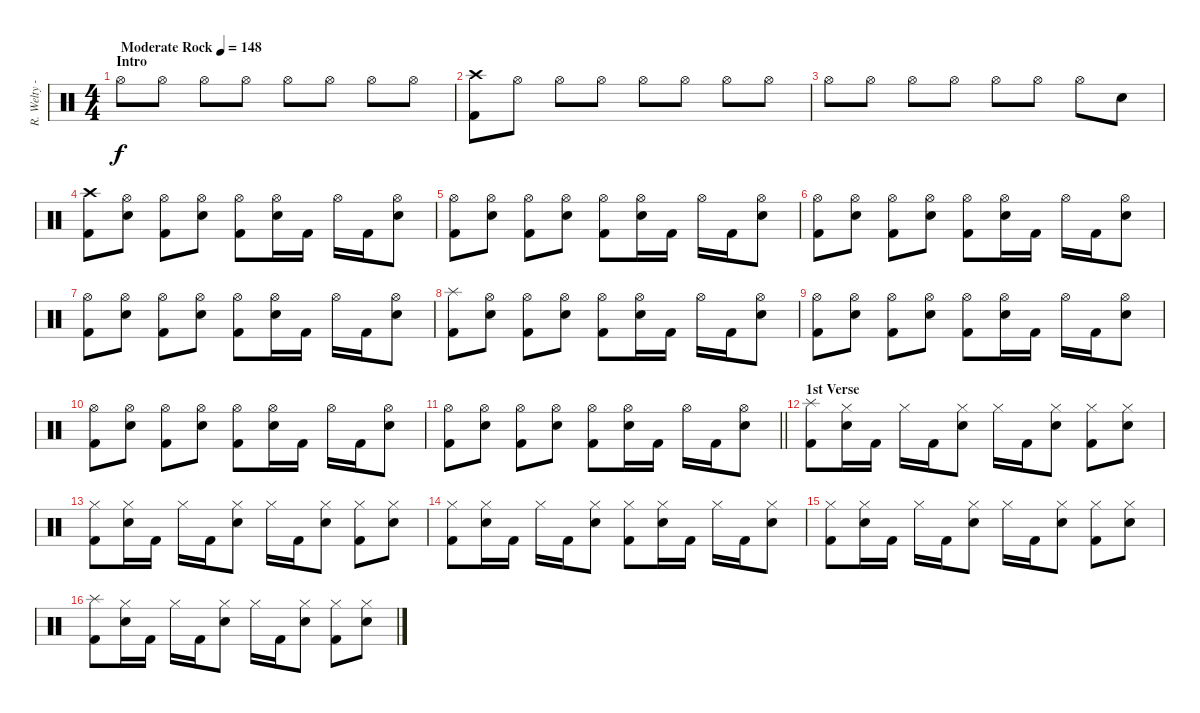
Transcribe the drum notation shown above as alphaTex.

\track ("R. Welty - Drums" "R. Welty -") {instrument percussion}
\staff {score}
\articulation defaults
\ts (4 4)
\section ("" "Intro")
\tempo (148 "Moderate Rock")
\clef neutral
\ks c "Hi-Hat (open)".8{dy f} "Hi-Hat (open)".8 "Hi-Hat (open)".8 "Hi-Hat (open)".8 "Hi-Hat (open)".8 "Hi-Hat (open)".8 "Hi-Hat (open)".8 "Hi-Hat (open)".8
|
("Crash high (hit)" "Kick (hit) 2").8 "Hi-Hat (open)".8 "Hi-Hat (open)".8 "Hi-Hat (open)".8 "Hi-Hat (open)".8 "Hi-Hat (open)".8 "Hi-Hat (open)".8 "Hi-Hat (open)".8 |
"Hi-Hat (open)".8 "Hi-Hat (open)".8 "Hi-Hat (open)".8 "Hi-Hat (open)".8 "Hi-Hat (open)".8 "Hi-Hat (open)".8 "Hi-Hat (open)".8 "Snare (hit) 2".8 |
("Crash high (hit)" "Kick (hit) 2").8 ("Hi-Hat (open)" "Snare (hit) 2").8 ("Hi-Hat (open)" "Kick (hit) 2").8 ("Hi-Hat (open)" "Snare (hit) 2").8 ("Hi-Hat (open)" "Kick (hit) 2").8 ("Hi-Hat (open)" "Snare (hit) 2").16 "Kick (hit) 2".16 "Hi-Hat (open)".16 "Kick (hit) 2".16 ("Hi-Hat (open)" "Snare (hit) 2").8 |
("Hi-Hat (open)" "Kick (hit) 2").8 ("Hi-Hat (open)" "Snare (hit) 2").8 ("Hi-Hat (open)" "Kick (hit) 2").8 ("Hi-Hat (open)" "Snare (hit) 2").8 ("Hi-Hat (open)" "Kick (hit) 2").8 ("Hi-Hat (open)" "Snare (hit) 2").16 "Kick (hit) 2".16 "Hi-Hat (open)".16 "Kick (hit) 2".16 ("Hi-Hat (open)" "Snare (hit) 2").8 |
("Hi-Hat (open)" "Kick (hit) 2").8 ("Hi-Hat (open)" "Snare (hit) 2").8 ("Hi-Hat (open)" "Kick (hit) 2").8 ("Hi-Hat (open)" "Snare (hit) 2").8 ("Hi-Hat (open)" "Kick (hit) 2").8 ("Hi-Hat (open)" "Snare (hit) 2").16 "Kick (hit) 2".16 "Hi-Hat (open)".16 "Kick (hit) 2".16 ("Hi-Hat (open)" "Snare (hit) 2").8 |
("Hi-Hat (open)" "Kick (hit) 2").8 ("Hi-Hat (open)" "Snare (hit) 2").8 ("Hi-Hat (open)" "Kick (hit) 2").8 ("Hi-Hat (open)" "Snare (hit) 2").8 ("Hi-Hat (open)" "Kick (hit) 2").8 ("Hi-Hat (open)" "Snare (hit) 2").16 "Kick (hit) 2".16 "Hi-Hat (open)".16 "Kick (hit) 2".16 ("Hi-Hat (open)" "Snare (hit) 2").8 |
("Splash (hit)" "Kick (hit) 2").8 ("Hi-Hat (open)" "Snare (hit) 2").8 ("Hi-Hat (open)" "Kick (hit) 2").8 ("Hi-Hat (open)" "Snare (hit) 2").8 ("Hi-Hat (open)" "Kick (hit) 2").8 ("Hi-Hat (open)" "Snare (hit) 2").16 "Kick (hit) 2".16 "Hi-Hat (open)".16 "Kick (hit) 2".16 ("Hi-Hat (open)" "Snare (hit) 2").8 |
("Hi-Hat (open)" "Kick (hit) 2").8 ("Hi-Hat (open)" "Snare (hit) 2").8 ("Hi-Hat (open)" "Kick (hit) 2").8 ("Hi-Hat (open)" "Snare (hit) 2").8 ("Hi-Hat (open)" "Kick (hit) 2").8 ("Hi-Hat (open)" "Snare (hit) 2").16 "Kick (hit) 2".16 "Hi-Hat (open)".16 "Kick (hit) 2".16 ("Hi-Hat (open)" "Snare (hit) 2").8 |
("Hi-Hat (open)" "Kick (hit) 2").8 ("Hi-Hat (open)" "Snare (hit) 2").8 ("Hi-Hat (open)" "Kick (hit) 2").8 ("Hi-Hat (open)" "Snare (hit) 2").8 ("Hi-Hat (open)" "Kick (hit) 2").8 ("Hi-Hat (open)" "Snare (hit) 2").16 "Kick (hit) 2".16 "Hi-Hat (open)".16 "Kick (hit) 2".16 ("Hi-Hat (open)" "Snare (hit) 2").8 |
\barLineRight lightlight
("Hi-Hat (open)" "Kick (hit) 2").8 ("Hi-Hat (open)" "Snare (hit) 2").8 ("Hi-Hat (open)" "Kick (hit) 2").8 ("Hi-Hat (open)" "Snare (hit) 2").8 ("Hi-Hat (open)" "Kick (hit) 2").8 ("Hi-Hat (open)" "Snare (hit) 2").16 "Kick (hit) 2".16 "Hi-Hat (open)".16 "Kick (hit) 2".16 ("Hi-Hat (open)" "Snare (hit) 2").8 |
\section ("" "1st Verse")
("Splash (hit)" "Kick (hit) 2").8 ("Hi-Hat (closed)" "Snare (hit) 2").16 "Kick (hit) 2".16 "Hi-Hat (closed)".16 "Kick (hit) 2".16 ("Hi-Hat (closed)" "Snare (hit) 2").8 "Hi-Hat (closed)".16 "Kick (hit) 2".16 ("Hi-Hat (closed)" "Snare (hit) 2").8 ("Hi-Hat (closed)" "Kick (hit) 2").8 ("Hi-Hat (closed)" "Snare (hit) 2").8 |
("Hi-Hat (closed)" "Kick (hit) 2").8 ("Hi-Hat (closed)" "Snare (hit) 2").16 "Kick (hit) 2".16 "Hi-Hat (closed)".16 "Kick (hit) 2".16 ("Hi-Hat (closed)" "Snare (hit) 2").8 "Hi-Hat (closed)".16 "Kick (hit) 2".16 ("Hi-Hat (closed)" "Snare (hit) 2").8 ("Hi-Hat (closed)" "Kick (hit) 2").8 ("Hi-Hat (closed)" "Snare (hit) 2").8 |
("Hi-Hat (closed)" "Kick (hit) 2").8 ("Hi-Hat (closed)" "Snare (hit) 2").16 "Kick (hit) 2".16 "Hi-Hat (closed)".16 "Kick (hit) 2".16 ("Hi-Hat (closed)" "Snare (hit) 2").8 ("Hi-Hat (closed)" "Kick (hit) 2").8 ("Hi-Hat (closed)" "Snare (hit) 2").16 "Kick (hit) 2".16 "Hi-Hat (closed)".16 "Kick (hit) 2".16 ("Hi-Hat (closed)" "Snare (hit) 2").8 |
("Hi-Hat (closed)" "Kick (hit) 2").8 ("Hi-Hat (closed)" "Snare (hit) 2").16 "Kick (hit) 2".16 "Hi-Hat (closed)".16 "Kick (hit) 2".16 ("Hi-Hat (closed)" "Snare (hit) 2").8 "Hi-Hat (closed)".16 "Kick (hit) 2".16 ("Hi-Hat (closed)" "Snare (hit) 2").8 ("Hi-Hat (closed)" "Kick (hit) 2").8 ("Hi-Hat (closed)" "Snare (hit) 2").8 |
("Splash (hit)" "Kick (hit) 2").8 ("Hi-Hat (closed)" "Snare (hit) 2").16 "Kick (hit) 2".16 "Hi-Hat (closed)".16 "Kick (hit) 2".16 ("Hi-Hat (closed)" "Snare (hit) 2").8 "Hi-Hat (closed)".16 "Kick (hit) 2".16 ("Hi-Hat (closed)" "Snare (hit) 2").8 ("Hi-Hat (closed)" "Kick (hit) 2").8 ("Hi-Hat (closed)" "Snare (hit) 2").8
